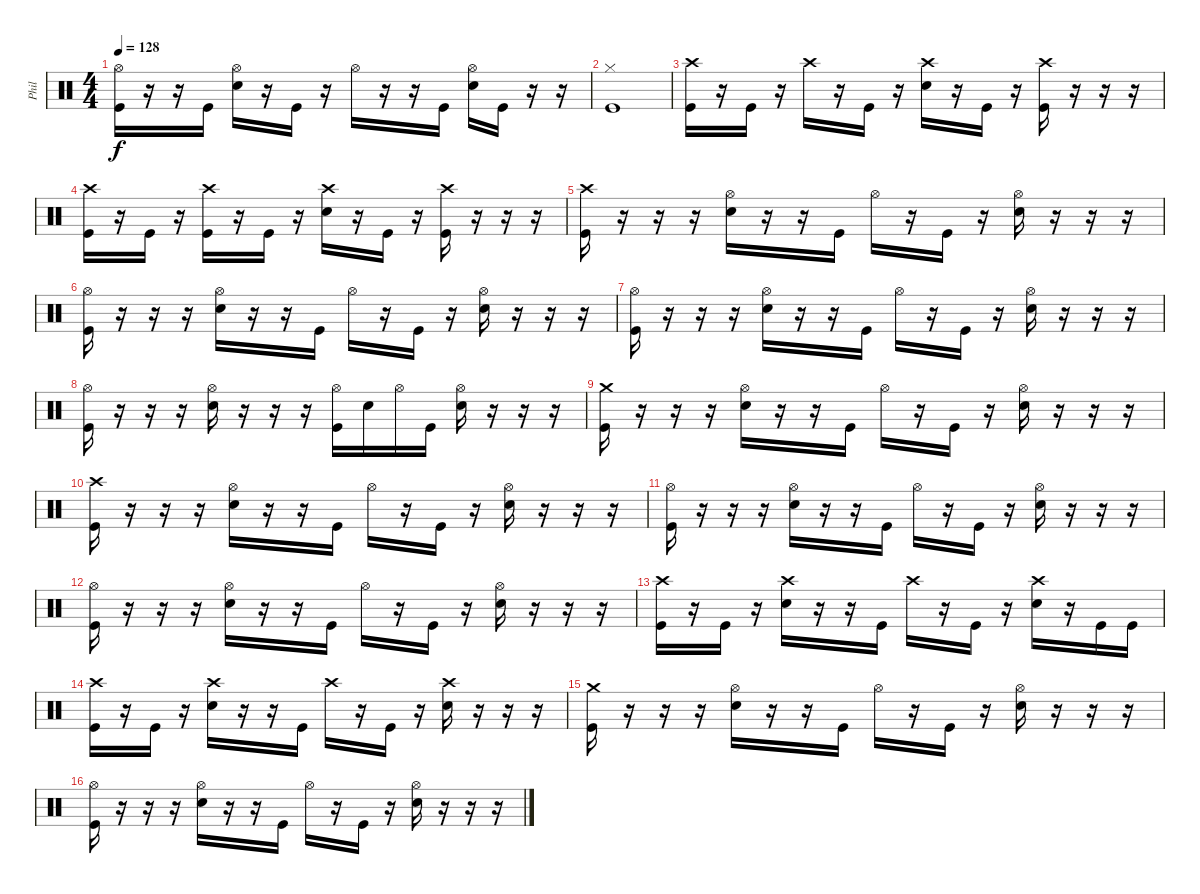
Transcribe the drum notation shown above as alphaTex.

\track ("Phil" "Phil") {instrument percussion}
\staff {score}
\articulation defaults
\ts (4 4)
\tempo 128
\clef neutral
\ks c
("Hi-Hat (open)" "Kick (hit)").16{dy f} r.16 r.16 "Kick (hit)".16 ("Hi-Hat (open)" "Electric Snare (hit)").16 r.16 "Kick (hit)".16 r.16 "Hi-Hat (open)".16 r.16 r.16 "Kick (hit)".16 ("Hi-Hat (open)" "Electric Snare (hit)").16 "Kick (hit)".16 r.16 r.16 |
("Hi-Hat (closed)" "Kick (hit)").1 |
("Crash high (hit)" "Kick (hit)").16 r.16 "Kick (hit)".16 r.16 "Crash high (hit)".16 r.16 "Kick (hit)".16 r.16 ("Crash high (hit)" "Electric Snare (hit)").16 r.16 "Kick (hit)".16 r.16 ("Crash high (hit)" "Kick (hit)").16 r.16 r.16 r.16 |
("Crash high (hit)" "Kick (hit)").16 r.16 "Kick (hit)".16 r.16 ("Crash high (hit)" "Kick (hit)").16 r.16 "Kick (hit)".16 r.16 ("Crash high (hit)" "Electric Snare (hit)").16 r.16 "Kick (hit)".16 r.16 ("Crash high (hit)" "Kick (hit)").16 r.16 r.16 r.16 |
("Crash high (hit)" "Kick (hit)").16 r.16 r.16 r.16 ("Hi-Hat (open)" "Electric Snare (hit)").16 r.16 r.16 "Kick (hit)".16 "Hi-Hat (open)".16 r.16 "Kick (hit)".16 r.16 ("Hi-Hat (open)" "Electric Snare (hit)").16 r.16 r.16 r.16 |
("Hi-Hat (open)" "Kick (hit)").16 r.16 r.16 r.16 ("Hi-Hat (open)" "Electric Snare (hit)").16 r.16 r.16 "Kick (hit)".16 "Hi-Hat (open)".16 r.16 "Kick (hit)".16 r.16 ("Hi-Hat (open)" "Electric Snare (hit)").16 r.16 r.16 r.16 |
("Hi-Hat (open)" "Kick (hit)").16 r.16 r.16 r.16 ("Hi-Hat (open)" "Electric Snare (hit)").16 r.16 r.16 "Kick (hit)".16 "Hi-Hat (open)".16 r.16 "Kick (hit)".16 r.16 ("Hi-Hat (open)" "Electric Snare (hit)").16 r.16 r.16 r.16 |
("Hi-Hat (open)" "Kick (hit)").16 r.16 r.16 r.16 ("Hi-Hat (open)" "Electric Snare (hit)").16 r.16 r.16 r.16 ("Hi-Hat (open)" "Kick (hit)").16 "Electric Snare (hit)".16 "Hi-Hat (open)".16 "Kick (hit)".16 ("Hi-Hat (open)" "Electric Snare (hit)").16 r.16 r.16 r.16 |
("Crash medium (hit)" "Kick (hit)").16 r.16 r.16 r.16 ("Hi-Hat (open)" "Electric Snare (hit)").16 r.16 r.16 "Kick (hit)".16 "Hi-Hat (open)".16 r.16 "Kick (hit)".16 r.16 ("Hi-Hat (open)" "Electric Snare (hit)").16 r.16 r.16 r.16 |
("Crash high (hit)" "Kick (hit)").16 r.16 r.16 r.16 ("Hi-Hat (open)" "Electric Snare (hit)").16 r.16 r.16 "Kick (hit)".16 "Hi-Hat (open)".16 r.16 "Kick (hit)".16 r.16 ("Hi-Hat (open)" "Electric Snare (hit)").16 r.16 r.16 r.16 |
("Hi-Hat (open)" "Kick (hit)").16 r.16 r.16 r.16 ("Hi-Hat (open)" "Electric Snare (hit)").16 r.16 r.16 "Kick (hit)".16 "Hi-Hat (open)".16 r.16 "Kick (hit)".16 r.16 ("Hi-Hat (open)" "Electric Snare (hit)").16 r.16 r.16 r.16 |
("Hi-Hat (open)" "Kick (hit)").16 r.16 r.16 r.16 ("Hi-Hat (open)" "Electric Snare (hit)").16 r.16 r.16 "Kick (hit)".16 "Hi-Hat (open)".16 r.16 "Kick (hit)".16 r.16 ("Hi-Hat (open)" "Electric Snare (hit)").16 r.16 r.16 r.16 |
("Crash high (hit)" "Kick (hit)").16 r.16 "Kick (hit)".16 r.16 ("Crash high (hit)" "Electric Snare (hit)").16 r.16 r.16 "Kick (hit)".16 "Crash high (hit)".16 r.16 "Kick (hit)".16 r.16 ("Crash high (hit)" "Electric Snare (hit)").16 r.16 "Kick (hit)".16 "Kick (hit)".16 |
("Crash high (hit)" "Kick (hit)").16 r.16 "Kick (hit)".16 r.16 ("Crash high (hit)" "Electric Snare (hit)").16 r.16 r.16 "Kick (hit)".16 "Crash high (hit)".16 r.16 "Kick (hit)".16 r.16 ("Crash high (hit)" "Electric Snare (hit)").16 r.16 r.16 r.16 |
("Crash medium (hit)" "Kick (hit)").16 r.16 r.16 r.16 ("Hi-Hat (open)" "Electric Snare (hit)").16 r.16 r.16 "Kick (hit)".16 "Hi-Hat (open)".16 r.16 "Kick (hit)".16 r.16 ("Hi-Hat (open)" "Electric Snare (hit)").16 r.16 r.16 r.16 |
("Hi-Hat (open)" "Kick (hit)").16 r.16 r.16 r.16 ("Hi-Hat (open)" "Electric Snare (hit)").16 r.16 r.16 "Kick (hit)".16 "Hi-Hat (open)".16 r.16 "Kick (hit)".16 r.16 ("Hi-Hat (open)" "Electric Snare (hit)").16 r.16 r.16 r.16
